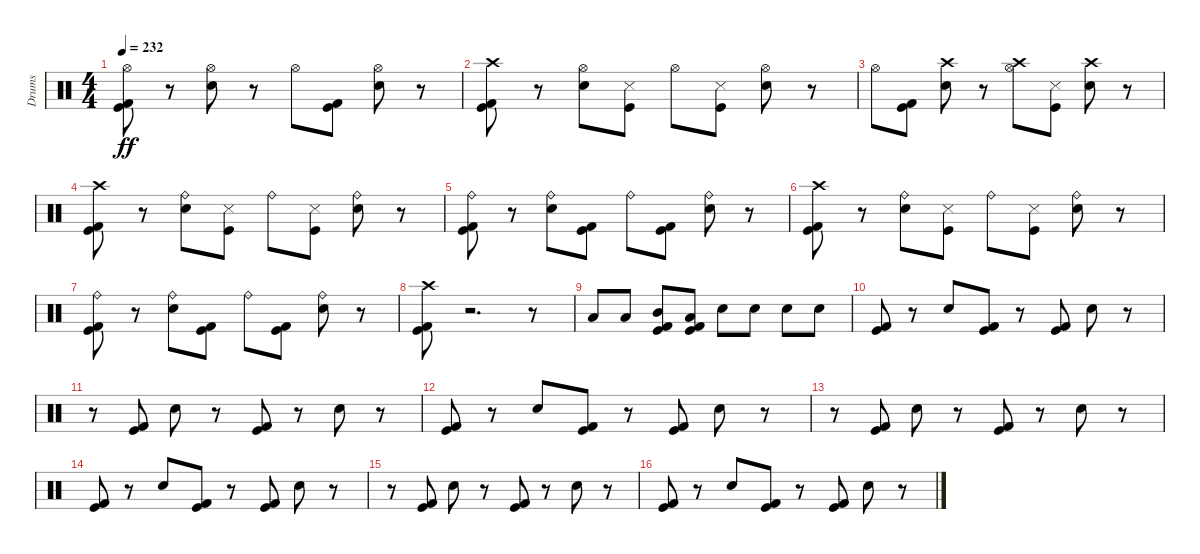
\track ("Drums" "Drums") {instrument percussion}
\staff {score}
\articulation defaults
\ts (4 4)
\tempo 232
\clef neutral
\ks c
("Kick (hit)" "Kick (hit) 2" "Hi-Hat (open)").8{dy ff} r.8 ("Snare (hit) 2" "Hi-Hat (open)").8 r.8 "Hi-Hat (open)".8 ("Kick (hit)" "Kick (hit) 2").8 ("Snare (hit) 2" "Hi-Hat (open)").8 r.8 |
("Kick (hit)" "Kick (hit) 2" "Crash high (hit)").8 r.8 ("Snare (hit) 2" "Hi-Hat (open)").8 ("Kick (hit)" "Snare (side stick) 3").8 "Hi-Hat (open)".8 ("Kick (hit)" "Snare (side stick) 3").8 ("Snare (hit) 2" "Hi-Hat (open)").8 r.8 |
"Hi-Hat (open)".8 ("Kick (hit)" "Kick (hit) 2").8 ("Snare (hit) 2" "Crash high (hit)").8 r.8 ("Hi-Hat (open)" "Crash high (hit)").8 ("Kick (hit)" "Snare (side stick) 3").8 ("Snare (hit) 2" "Crash high (hit)").8 r.8 |
("Kick (hit)" "Kick (hit) 2" "Crash high (hit)").8 r.8 ("Snare (hit) 2" "Ride (bell)").8 ("Kick (hit)" "Snare (side stick) 3").8 "Ride (bell)".8 ("Kick (hit)" "Snare (side stick) 3").8 ("Snare (hit) 2" "Ride (bell)").8 r.8 |
("Kick (hit)" "Kick (hit) 2" "Ride (bell)").8 r.8 ("Snare (hit) 2" "Ride (bell)").8 ("Kick (hit)" "Kick (hit) 2").8 "Ride (bell)".8 ("Kick (hit)" "Kick (hit) 2").8 ("Snare (hit) 2" "Ride (bell)").8 r.8 |
("Kick (hit)" "Kick (hit) 2" "Crash high (hit)").8 r.8 ("Snare (hit) 2" "Ride (bell)").8 ("Kick (hit)" "Snare (side stick) 3").8 "Ride (bell)".8 ("Kick (hit)" "Snare (side stick) 3").8 ("Snare (hit) 2" "Ride (bell)").8 r.8 |
("Kick (hit)" "Kick (hit) 2" "Ride (bell)").8 r.8 ("Snare (hit) 2" "Ride (bell)").8 ("Kick (hit)" "Kick (hit) 2").8 "Ride (bell)".8 ("Kick (hit)" "Kick (hit) 2").8 ("Snare (hit) 2" "Ride (bell)").8 r.8 |
("Kick (hit)" "Kick (hit) 2" "Crash high (hit)").8 r.2{d} r.8 |
"Low Floor Tom (hit)".8 "Low Floor Tom (hit)".8 ("Kick (hit)" "Kick (hit) 2" "Mid Tom (hit)").8 ("Kick (hit)" "Kick (hit) 2" "Low Tom (hit)").8 "Snare (hit) 2".8 "Snare (hit) 2".8 "Snare (hit) 2".8 "Snare (hit) 2".8 |
("Kick (hit)" "Kick (hit) 2").8 r.8 "Snare (hit) 2".8 ("Kick (hit)" "Kick (hit) 2").8 r.8 ("Kick (hit)" "Kick (hit) 2").8 "Snare (hit) 2".8 r.8 |
r.8 ("Kick (hit)" "Kick (hit) 2").8 "Snare (hit) 2".8 r.8 ("Kick (hit)" "Kick (hit) 2").8 r.8 "Snare (hit) 2".8 r.8 |
("Kick (hit)" "Kick (hit) 2").8 r.8 "Snare (hit) 2".8 ("Kick (hit)" "Kick (hit) 2").8 r.8 ("Kick (hit)" "Kick (hit) 2").8 "Snare (hit) 2".8 r.8 |
r.8 ("Kick (hit)" "Kick (hit) 2").8 "Snare (hit) 2".8 r.8 ("Kick (hit)" "Kick (hit) 2").8 r.8 "Snare (hit) 2".8 r.8 |
("Kick (hit)" "Kick (hit) 2").8 r.8 "Snare (hit) 2".8 ("Kick (hit)" "Kick (hit) 2").8 r.8 ("Kick (hit)" "Kick (hit) 2").8 "Snare (hit) 2".8 r.8 |
r.8 ("Kick (hit)" "Kick (hit) 2").8 "Snare (hit) 2".8 r.8 ("Kick (hit)" "Kick (hit) 2").8 r.8 "Snare (hit) 2".8 r.8 |
("Kick (hit)" "Kick (hit) 2").8 r.8 "Snare (hit) 2".8 ("Kick (hit)" "Kick (hit) 2").8 r.8 ("Kick (hit)" "Kick (hit) 2").8 "Snare (hit) 2".8 r.8
